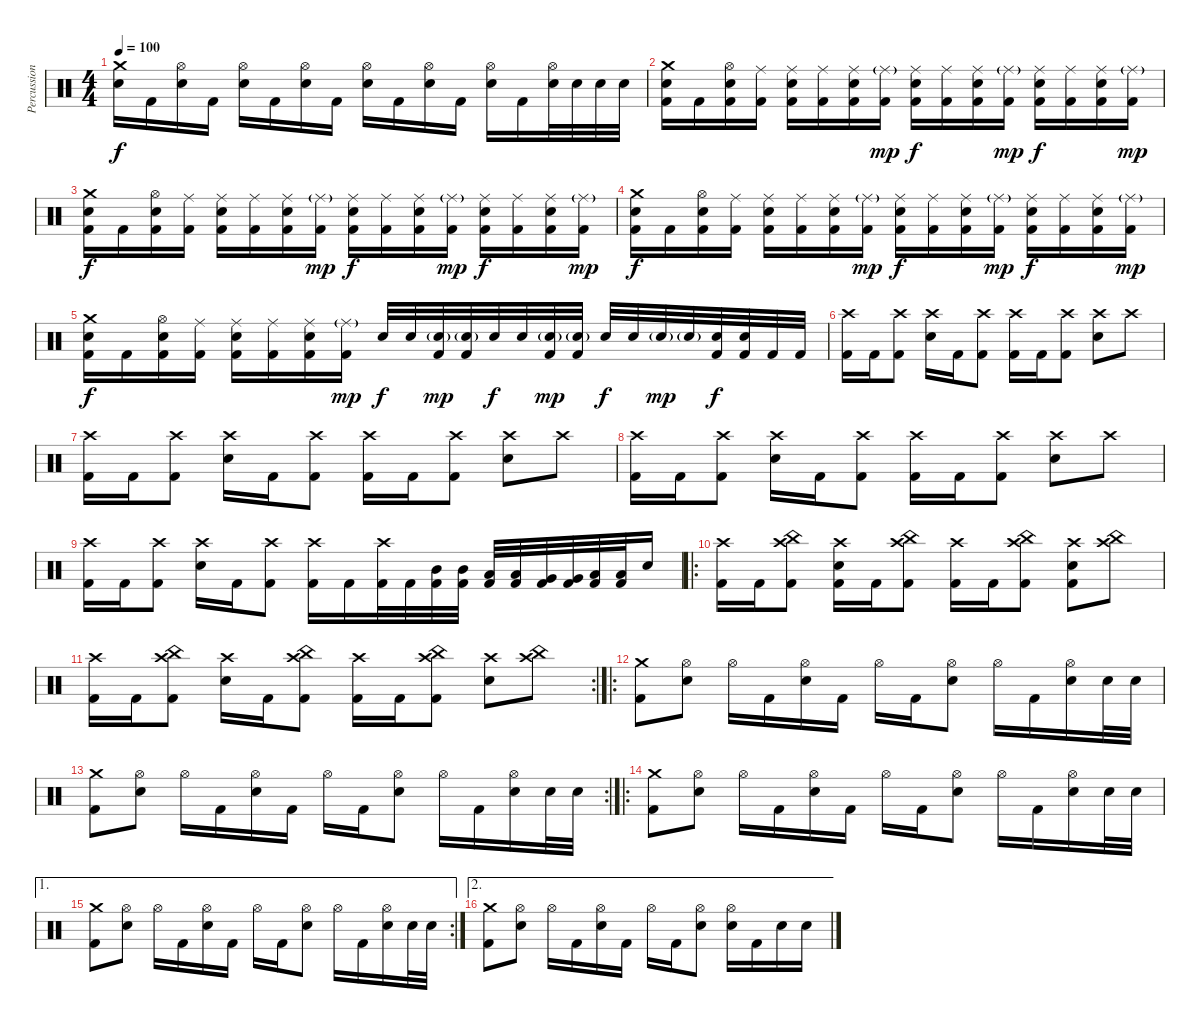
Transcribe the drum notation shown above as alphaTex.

\track ("Percussion" "Percussion") {instrument percussion}
\staff {score}
\articulation defaults
\ts (4 4)
\tempo 100
\clef neutral
\ks c
("Crash medium (hit)" "Snare (hit) 2").16{dy f} "Kick (hit) 2".16 ("Hi-Hat (open)" "Snare (hit) 2").16 "Kick (hit) 2".16 ("Hi-Hat (open)" "Snare (hit) 2").16 "Kick (hit) 2".16 ("Hi-Hat (open)" "Snare (hit) 2").16 "Kick (hit) 2".16 ("Hi-Hat (open)" "Snare (hit) 2").16 "Kick (hit) 2".16 ("Hi-Hat (open)" "Snare (hit) 2").16 "Kick (hit) 2".16 ("Hi-Hat (open)" "Snare (hit) 2").16 "Kick (hit) 2".16 ("Hi-Hat (open)" "Snare (hit) 2").32 "Snare (hit) 2".32 "Snare (hit) 2".32 "Snare (hit) 2".32 |
("Crash medium (hit)" "Snare (hit) 2" "Kick (hit) 2").16 "Kick (hit) 2".16 ("Hi-Hat (open)" "Snare (hit) 2" "Kick (hit) 2").16 ("Ride (middle)" "Kick (hit) 2").16 ("Ride (middle)" "Snare (hit) 2" "Kick (hit) 2").16 ("Ride (middle)" "Kick (hit) 2").16 ("Ride (middle)" "Snare (hit) 2" "Kick (hit) 2").16 ("Ride (middle)"{g} "Kick (hit) 2").16{dy mp} ("Ride (middle)" "Snare (hit) 2" "Kick (hit) 2").16{dy f} ("Ride (middle)" "Kick (hit) 2").16 ("Ride (middle)" "Snare (hit) 2" "Kick (hit) 2").16 ("Ride (middle)"{g} "Kick (hit) 2").16{dy mp} ("Ride (middle)" "Snare (hit) 2" "Kick (hit) 2").16{dy f} ("Ride (middle)" "Kick (hit) 2").16 ("Ride (middle)" "Snare (hit) 2" "Kick (hit) 2").16 ("Ride (middle)"{g} "Kick (hit) 2").16{dy mp} |
("Crash medium (hit)" "Snare (hit) 2" "Kick (hit) 2").16{dy f} "Kick (hit) 2".16 ("Hi-Hat (open)" "Snare (hit) 2" "Kick (hit) 2").16 ("Ride (middle)" "Kick (hit) 2").16 ("Ride (middle)" "Snare (hit) 2" "Kick (hit) 2").16 ("Ride (middle)" "Kick (hit) 2").16 ("Ride (middle)" "Snare (hit) 2" "Kick (hit) 2").16 ("Ride (middle)"{g} "Kick (hit) 2").16{dy mp} ("Ride (middle)" "Snare (hit) 2" "Kick (hit) 2").16{dy f} ("Ride (middle)" "Kick (hit) 2").16 ("Ride (middle)" "Snare (hit) 2" "Kick (hit) 2").16 ("Ride (middle)"{g} "Kick (hit) 2").16{dy mp} ("Ride (middle)" "Snare (hit) 2" "Kick (hit) 2").16{dy f} ("Ride (middle)" "Kick (hit) 2").16 ("Ride (middle)" "Snare (hit) 2" "Kick (hit) 2").16 ("Ride (middle)"{g} "Kick (hit) 2").16{dy mp} |
("Crash medium (hit)" "Snare (hit) 2" "Kick (hit) 2").16{dy f} "Kick (hit) 2".16 ("Hi-Hat (open)" "Snare (hit) 2" "Kick (hit) 2").16 ("Ride (middle)" "Kick (hit) 2").16 ("Ride (middle)" "Snare (hit) 2" "Kick (hit) 2").16 ("Ride (middle)" "Kick (hit) 2").16 ("Ride (middle)" "Snare (hit) 2" "Kick (hit) 2").16 ("Ride (middle)"{g} "Kick (hit) 2").16{dy mp} ("Ride (middle)" "Snare (hit) 2" "Kick (hit) 2").16{dy f} ("Ride (middle)" "Kick (hit) 2").16 ("Ride (middle)" "Snare (hit) 2" "Kick (hit) 2").16 ("Ride (middle)"{g} "Kick (hit) 2").16{dy mp} ("Ride (middle)" "Snare (hit) 2" "Kick (hit) 2").16{dy f} ("Ride (middle)" "Kick (hit) 2").16 ("Ride (middle)" "Snare (hit) 2" "Kick (hit) 2").16 ("Ride (middle)"{g} "Kick (hit) 2").16{dy mp} |
("Crash medium (hit)" "Snare (hit) 2" "Kick (hit) 2").16{dy f} "Kick (hit) 2".16 ("Hi-Hat (open)" "Snare (hit) 2" "Kick (hit) 2").16 ("Ride (middle)" "Kick (hit) 2").16 ("Ride (middle)" "Snare (hit) 2" "Kick (hit) 2").16 ("Ride (middle)" "Kick (hit) 2").16 ("Ride (middle)" "Snare (hit) 2" "Kick (hit) 2").16 ("Ride (middle)"{g} "Kick (hit) 2").16{dy mp} "Snare (hit) 2".32{dy f} "Snare (hit) 2".32 ("Snare (hit) 2"{g} "Kick (hit) 2").32{dy mp} ("Snare (hit) 2"{g} "Kick (hit) 2").32 "Snare (hit) 2".32{dy f} "Snare (hit) 2".32 ("Snare (hit) 2"{g} "Kick (hit) 2").32{dy mp} ("Snare (hit) 2"{g} "Kick (hit) 2").32 "Snare (hit) 2".32{dy f} "Snare (hit) 2".32 "Snare (hit) 2"{g}.32{dy mp} "Snare (hit) 2"{g}.32 ("Snare (hit) 2" "Kick (hit) 2").32{dy f} ("Snare (hit) 2" "Kick (hit) 2").32 "Kick (hit) 2".32 "Kick (hit) 2".32 |
("Crash high (hit)" "Kick (hit) 2").16 "Kick (hit) 2".16 ("Crash high (hit)" "Kick (hit) 2").8 ("Crash high (hit)" "Snare (hit) 2").16 "Kick (hit) 2".16 ("Crash high (hit)" "Kick (hit) 2").8 ("Crash high (hit)" "Kick (hit) 2").16 "Kick (hit) 2".16 ("Crash high (hit)" "Kick (hit) 2").8 ("Crash high (hit)" "Snare (hit) 2").8 "Crash high (hit)".8 |
("Crash high (hit)" "Kick (hit) 2").16 "Kick (hit) 2".16 ("Crash high (hit)" "Kick (hit) 2").8 ("Crash high (hit)" "Snare (hit) 2").16 "Kick (hit) 2".16 ("Crash high (hit)" "Kick (hit) 2").8 ("Crash high (hit)" "Kick (hit) 2").16 "Kick (hit) 2".16 ("Crash high (hit)" "Kick (hit) 2").8 ("Crash high (hit)" "Snare (hit) 2").8 "Crash high (hit)".8 |
("Crash high (hit)" "Kick (hit) 2").16 "Kick (hit) 2".16 ("Crash high (hit)" "Kick (hit) 2").8 ("Crash high (hit)" "Snare (hit) 2").16 "Kick (hit) 2".16 ("Crash high (hit)" "Kick (hit) 2").8 ("Crash high (hit)" "Kick (hit) 2").16 "Kick (hit) 2".16 ("Crash high (hit)" "Kick (hit) 2").8 ("Crash high (hit)" "Snare (hit) 2").8 "Crash high (hit)".8 |
("Crash high (hit)" "Kick (hit) 2").16 "Kick (hit) 2".16 ("Crash high (hit)" "Kick (hit) 2").8 ("Crash high (hit)" "Snare (hit) 2").16 "Kick (hit) 2".16 ("Crash high (hit)" "Kick (hit) 2").8 ("Crash high (hit)" "Kick (hit) 2").16 "Kick (hit) 2".16 ("Crash high (hit)" "Kick (hit) 2").32 "Kick (hit) 2".32 ("Mid Tom (hit)" "Kick (hit) 2").32 ("Mid Tom (hit)" "Kick (hit) 2").32 ("Low Tom (hit)" "Kick (hit) 2").32 ("Low Tom (hit)" "Kick (hit) 2").32 ("Very Low Tom (hit)" "Kick (hit) 2").32 ("Very Low Tom (hit)" "Kick (hit) 2").32 ("Low Floor Tom (hit)" "Kick (hit) 2").32 ("Low Floor Tom (hit)" "Kick (hit) 2").32 "Snare (hit) 2".16 |
\ro
("Crash high (hit)" "Kick (hit) 2").16 "Kick (hit) 2".16 ("Crash high (hit)" "China (hit)" "Kick (hit) 2").8 ("Crash high (hit)" "Snare (hit) 2" "Kick (hit) 2").16 "Kick (hit) 2".16 ("Crash high (hit)" "China (hit)" "Kick (hit) 2").8 ("Crash high (hit)" "Kick (hit) 2").16 "Kick (hit) 2".16 ("Crash high (hit)" "China (hit)" "Kick (hit) 2").8 ("Crash high (hit)" "Snare (hit) 2" "Kick (hit) 2").8 ("Crash high (hit)" "China (hit)").8 |
\rc 2
("Crash high (hit)" "Kick (hit) 2").16 "Kick (hit) 2".16 ("Crash high (hit)" "China (hit)" "Kick (hit) 2").8 ("Crash high (hit)" "Snare (hit) 2").16 "Kick (hit) 2".16 ("Crash high (hit)" "China (hit)" "Kick (hit) 2").8 ("Crash high (hit)" "Kick (hit) 2").16 "Kick (hit) 2".16 ("Crash high (hit)" "China (hit)" "Kick (hit) 2").8 ("Crash high (hit)" "Snare (hit) 2").8 ("Crash high (hit)" "China (hit)").8 |
\ro
("Crash medium (hit)" "Kick (hit) 2").8 ("Hi-Hat (open)" "Snare (hit) 2").8 "Hi-Hat (open)".16 "Kick (hit) 2".16 ("Hi-Hat (open)" "Snare (hit) 2").16 "Kick (hit) 2".16 "Hi-Hat (open)".16 "Kick (hit) 2".16 ("Hi-Hat (open)" "Snare (hit) 2").8 "Hi-Hat (open)".16 "Kick (hit) 2".16 ("Hi-Hat (open)" "Snare (hit) 2").16 "Snare (hit) 2".32 "Snare (hit) 2".32 |
\rc 2
("Crash medium (hit)" "Kick (hit) 2").8 ("Hi-Hat (open)" "Snare (hit) 2").8 "Hi-Hat (open)".16 "Kick (hit) 2".16 ("Hi-Hat (open)" "Snare (hit) 2").16 "Kick (hit) 2".16 "Hi-Hat (open)".16 "Kick (hit) 2".16 ("Hi-Hat (open)" "Snare (hit) 2").8 "Hi-Hat (open)".16 "Kick (hit) 2".16 ("Hi-Hat (open)" "Snare (hit) 2").16 "Snare (hit) 2".32 "Snare (hit) 2".32 |
\ro
("Crash medium (hit)" "Kick (hit) 2").8 ("Hi-Hat (open)" "Snare (hit) 2").8 "Hi-Hat (open)".16 "Kick (hit) 2".16 ("Hi-Hat (open)" "Snare (hit) 2").16 "Kick (hit) 2".16 "Hi-Hat (open)".16 "Kick (hit) 2".16 ("Hi-Hat (open)" "Snare (hit) 2").8 "Hi-Hat (open)".16 "Kick (hit) 2".16 ("Hi-Hat (open)" "Snare (hit) 2").16 "Snare (hit) 2".32 "Snare (hit) 2".32 |
\ae 1
\rc 2
("Crash medium (hit)" "Kick (hit) 2").8 ("Hi-Hat (open)" "Snare (hit) 2").8 "Hi-Hat (open)".16 "Kick (hit) 2".16 ("Hi-Hat (open)" "Snare (hit) 2").16 "Kick (hit) 2".16 "Hi-Hat (open)".16 "Kick (hit) 2".16 ("Hi-Hat (open)" "Snare (hit) 2").8 "Hi-Hat (open)".16 "Kick (hit) 2".16 ("Hi-Hat (open)" "Snare (hit) 2").16 "Snare (hit) 2".32 "Snare (hit) 2".32 |
\ae 2
("Crash medium (hit)" "Kick (hit) 2").8 ("Hi-Hat (open)" "Snare (hit) 2").8 "Hi-Hat (open)".16 "Kick (hit) 2".16 ("Hi-Hat (open)" "Snare (hit) 2").16 "Kick (hit) 2".16 "Hi-Hat (open)".16 "Kick (hit) 2".16 ("Hi-Hat (open)" "Snare (hit) 2").8 ("Hi-Hat (open)" "Snare (hit) 2").16 "Kick (hit) 2".16 "Snare (hit) 2".16 "Snare (hit) 2".16
